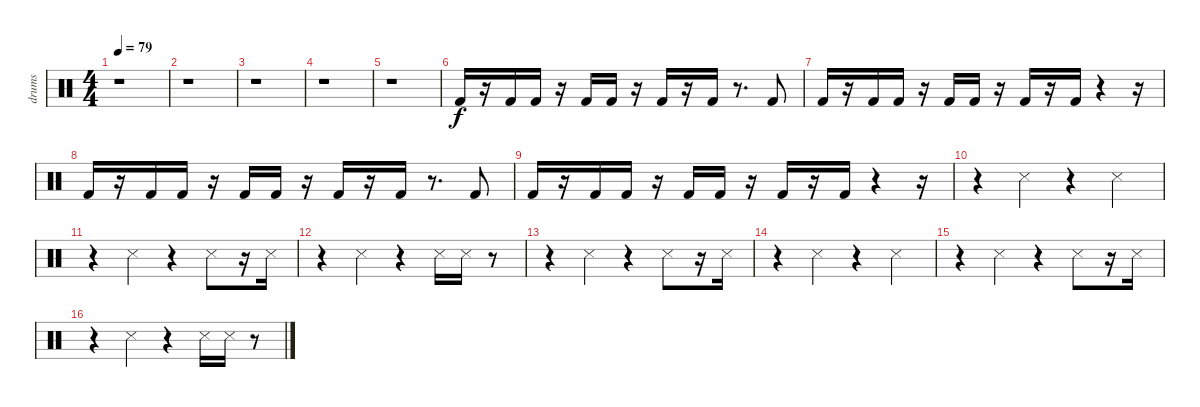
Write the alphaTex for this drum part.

\track ("drums" "drums") {instrument percussion}
\staff {score}
\articulation defaults
\ts (4 4)
\tempo 79
\clef neutral
\ks c
r.1{dy f} |
r.1 |
r.1 |
r.1 |
r.1 |
"Kick (hit) 2".16 r.16 "Kick (hit) 2".16 "Kick (hit) 2".16 r.16 "Kick (hit) 2".16 "Kick (hit) 2".16 r.16 "Kick (hit) 2".16 r.16 "Kick (hit) 2".16 r.8{d} "Kick (hit) 2".8 |
"Kick (hit) 2".16 r.16 "Kick (hit) 2".16 "Kick (hit) 2".16 r.16 "Kick (hit) 2".16 "Kick (hit) 2".16 r.16 "Kick (hit) 2".16 r.16 "Kick (hit) 2".16 r.4 r.16 |
"Kick (hit) 2".16 r.16 "Kick (hit) 2".16 "Kick (hit) 2".16 r.16 "Kick (hit) 2".16 "Kick (hit) 2".16 r.16 "Kick (hit) 2".16 r.16 "Kick (hit) 2".16 r.8{d} "Kick (hit) 2".8 |
"Kick (hit) 2".16 r.16 "Kick (hit) 2".16 "Kick (hit) 2".16 r.16 "Kick (hit) 2".16 "Kick (hit) 2".16 r.16 "Kick (hit) 2".16 r.16 "Kick (hit) 2".16 r.4 r.16 |
r.4 "Snare (side stick) 3".4 r.4 "Snare (side stick) 3".4 |
r.4 "Snare (side stick) 3".4 r.4 "Snare (side stick) 3".8 r.16 "Snare (side stick) 3".16 |
r.4 "Snare (side stick) 3".4 r.4 "Snare (side stick) 3".16 "Snare (side stick) 3".16 r.8 |
r.4 "Snare (side stick) 3".4 r.4 "Snare (side stick) 3".8 r.16 "Snare (side stick) 3".16 |
r.4 "Snare (side stick) 3".4 r.4 "Snare (side stick) 3".4 |
r.4 "Snare (side stick) 3".4 r.4 "Snare (side stick) 3".8 r.16 "Snare (side stick) 3".16 |
r.4 "Snare (side stick) 3".4 r.4 "Snare (side stick) 3".16 "Snare (side stick) 3".16 r.8
